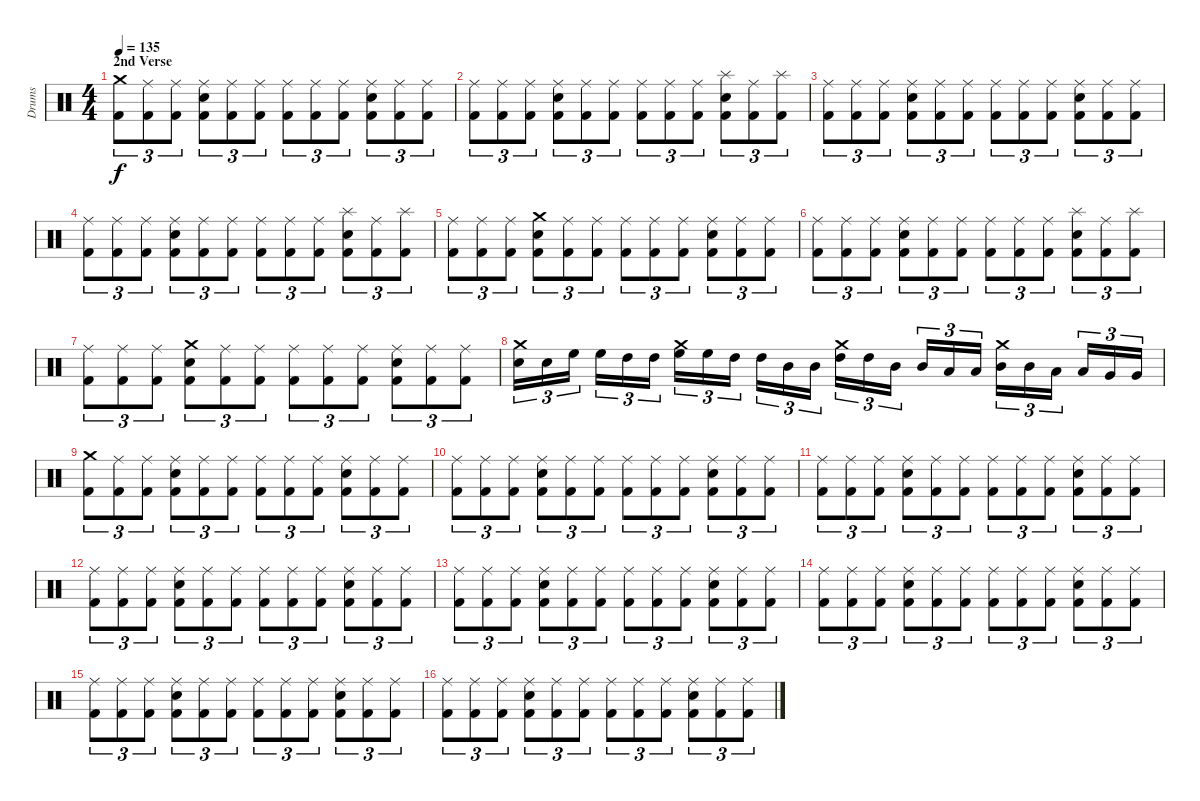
\track ("Drums" "Drums") {instrument percussion}
\staff {score}
\articulation defaults
\ts (4 4)
\section ("" "2nd Verse")
\tempo 135
\clef neutral
\ks c
("Kick (hit) 2" "Crash medium (hit)").8{tu (3 2) dy f} ("Kick (hit) 2" "Ride (middle)").8{tu (3 2)} ("Kick (hit) 2" "Ride (middle)").8{tu (3 2)} ("Kick (hit) 2" "Electric Snare (hit)" "Ride (middle)").8{tu (3 2)} ("Kick (hit) 2" "Ride (middle)").8{tu (3 2)} ("Kick (hit) 2" "Ride (middle)").8{tu (3 2)} ("Kick (hit) 2" "Ride (middle)").8{tu (3 2)} ("Kick (hit) 2" "Ride (middle)").8{tu (3 2)} ("Kick (hit) 2" "Ride (middle)").8{tu (3 2)} ("Kick (hit) 2" "Electric Snare (hit)" "Ride (middle)").8{tu (3 2)} ("Kick (hit) 2" "Ride (middle)").8{tu (3 2)} ("Kick (hit) 2" "Ride (middle)").8{tu (3 2)} |
("Kick (hit) 2" "Ride (middle)").8{tu (3 2)} ("Kick (hit) 2" "Ride (middle)").8{tu (3 2)} ("Kick (hit) 2" "Ride (middle)").8{tu (3 2)} ("Kick (hit) 2" "Electric Snare (hit)" "Ride (middle)").8{tu (3 2)} ("Kick (hit) 2" "Ride (middle)").8{tu (3 2)} ("Kick (hit) 2" "Ride (middle)").8{tu (3 2)} ("Kick (hit) 2" "Ride (middle)").8{tu (3 2)} ("Kick (hit) 2" "Ride (middle)").8{tu (3 2)} ("Kick (hit) 2" "Ride (middle)").8{tu (3 2)} ("Kick (hit) 2" "Electric Snare (hit)" "Splash (hit)").8{tu (3 2)} ("Kick (hit) 2" "Ride (middle)").8{tu (3 2)} ("Kick (hit) 2" "Splash (hit)").8{tu (3 2)} |
("Kick (hit) 2" "Ride (middle)").8{tu (3 2)} ("Kick (hit) 2" "Ride (middle)").8{tu (3 2)} ("Kick (hit) 2" "Ride (middle)").8{tu (3 2)} ("Kick (hit) 2" "Electric Snare (hit)" "Ride (middle)").8{tu (3 2)} ("Kick (hit) 2" "Ride (middle)").8{tu (3 2)} ("Kick (hit) 2" "Ride (middle)").8{tu (3 2)} ("Kick (hit) 2" "Ride (middle)").8{tu (3 2)} ("Kick (hit) 2" "Ride (middle)").8{tu (3 2)} ("Kick (hit) 2" "Ride (middle)").8{tu (3 2)} ("Kick (hit) 2" "Electric Snare (hit)" "Ride (middle)").8{tu (3 2)} ("Kick (hit) 2" "Ride (middle)").8{tu (3 2)} ("Kick (hit) 2" "Ride (middle)").8{tu (3 2)} |
("Kick (hit) 2" "Ride (middle)").8{tu (3 2)} ("Kick (hit) 2" "Ride (middle)").8{tu (3 2)} ("Kick (hit) 2" "Ride (middle)").8{tu (3 2)} ("Kick (hit) 2" "Electric Snare (hit)" "Ride (middle)").8{tu (3 2)} ("Kick (hit) 2" "Ride (middle)").8{tu (3 2)} ("Kick (hit) 2" "Ride (middle)").8{tu (3 2)} ("Kick (hit) 2" "Ride (middle)").8{tu (3 2)} ("Kick (hit) 2" "Ride (middle)").8{tu (3 2)} ("Kick (hit) 2" "Ride (middle)").8{tu (3 2)} ("Kick (hit) 2" "Electric Snare (hit)" "Splash (hit)").8{tu (3 2)} ("Kick (hit) 2" "Ride (middle)").8{tu (3 2)} ("Kick (hit) 2" "Splash (hit)").8{tu (3 2)} |
("Kick (hit) 2" "Ride (middle)").8{tu (3 2)} ("Kick (hit) 2" "Ride (middle)").8{tu (3 2)} ("Kick (hit) 2" "Ride (middle)").8{tu (3 2)} ("Kick (hit) 2" "Electric Snare (hit)" "Crash medium (hit)").8{tu (3 2)} ("Kick (hit) 2" "Ride (middle)").8{tu (3 2)} ("Kick (hit) 2" "Ride (middle)").8{tu (3 2)} ("Kick (hit) 2" "Ride (middle)").8{tu (3 2)} ("Kick (hit) 2" "Ride (middle)").8{tu (3 2)} ("Kick (hit) 2" "Ride (middle)").8{tu (3 2)} ("Kick (hit) 2" "Electric Snare (hit)" "Ride (middle)").8{tu (3 2)} ("Kick (hit) 2" "Ride (middle)").8{tu (3 2)} ("Kick (hit) 2" "Ride (middle)").8{tu (3 2)} |
("Kick (hit) 2" "Ride (middle)").8{tu (3 2)} ("Kick (hit) 2" "Ride (middle)").8{tu (3 2)} ("Kick (hit) 2" "Ride (middle)").8{tu (3 2)} ("Kick (hit) 2" "Electric Snare (hit)" "Ride (middle)").8{tu (3 2)} ("Kick (hit) 2" "Ride (middle)").8{tu (3 2)} ("Kick (hit) 2" "Ride (middle)").8{tu (3 2)} ("Kick (hit) 2" "Ride (middle)").8{tu (3 2)} ("Kick (hit) 2" "Ride (middle)").8{tu (3 2)} ("Kick (hit) 2" "Ride (middle)").8{tu (3 2)} ("Kick (hit) 2" "Electric Snare (hit)" "Splash (hit)").8{tu (3 2)} ("Kick (hit) 2" "Ride (middle)").8{tu (3 2)} ("Kick (hit) 2" "Splash (hit)").8{tu (3 2)} |
("Kick (hit) 2" "Ride (middle)").8{tu (3 2)} ("Kick (hit) 2" "Ride (middle)").8{tu (3 2)} ("Kick (hit) 2" "Ride (middle)").8{tu (3 2)} ("Kick (hit) 2" "Electric Snare (hit)" "Crash medium (hit)").8{tu (3 2)} ("Kick (hit) 2" "Ride (middle)").8{tu (3 2)} ("Kick (hit) 2" "Ride (middle)").8{tu (3 2)} ("Kick (hit) 2" "Ride (middle)").8{tu (3 2)} ("Kick (hit) 2" "Ride (middle)").8{tu (3 2)} ("Kick (hit) 2" "Ride (middle)").8{tu (3 2)} ("Kick (hit) 2" "Electric Snare (hit)" "Ride (middle)").8{tu (3 2)} ("Kick (hit) 2" "Ride (middle)").8{tu (3 2)} ("Kick (hit) 2" "Ride (middle)").8{tu (3 2)} |
("Electric Snare (hit)" "Crash medium (hit)").16{tu (3 2)} "Electric Snare (hit)".16{tu (3 2)} "High Floor Tom (hit)".16{tu (3 2)} "High Floor Tom (hit)".16{tu (3 2)} "High Tom (hit)".16{tu (3 2)} "High Tom (hit)".16{tu (3 2)} ("High Floor Tom (hit)" "Crash medium (hit)").16{tu (3 2)} "High Floor Tom (hit)".16{tu (3 2)} "High Tom (hit)".16{tu (3 2)} "High Tom (hit)".16{tu (3 2)} "Mid Tom (hit)".16{tu (3 2)} "Mid Tom (hit)".16{tu (3 2)} ("High Tom (hit)" "Crash medium (hit)").16{tu (3 2)} "High Tom (hit)".16{tu (3 2)} "Mid Tom (hit)".16{tu (3 2)} "Mid Tom (hit)".16{tu (3 2)} "Low Tom (hit)".16{tu (3 2)} "Low Tom (hit)".16{tu (3 2)} ("Mid Tom (hit)" "Crash medium (hit)").16{tu (3 2)} "Mid Tom (hit)".16{tu (3 2)} "Low Tom (hit)".16{tu (3 2)} "Low Tom (hit)".16{tu (3 2)} "Very Low Tom (hit)".16{tu (3 2)} "Very Low Tom (hit)".16{tu (3 2)} |
("Kick (hit) 2" "Crash medium (hit)").8{tu (3 2)} ("Kick (hit) 2" "Ride (middle)").8{tu (3 2)} ("Kick (hit) 2" "Ride (middle)").8{tu (3 2)} ("Kick (hit) 2" "Electric Snare (hit)" "Ride (middle)").8{tu (3 2)} ("Kick (hit) 2" "Ride (middle)").8{tu (3 2)} ("Kick (hit) 2" "Ride (middle)").8{tu (3 2)} ("Kick (hit) 2" "Ride (middle)").8{tu (3 2)} ("Kick (hit) 2" "Ride (middle)").8{tu (3 2)} ("Kick (hit) 2" "Ride (middle)").8{tu (3 2)} ("Kick (hit) 2" "Electric Snare (hit)" "Ride (middle)").8{tu (3 2)} ("Kick (hit) 2" "Ride (middle)").8{tu (3 2)} ("Kick (hit) 2" "Ride (middle)").8{tu (3 2)} |
("Kick (hit) 2" "Ride (middle)").8{tu (3 2)} ("Kick (hit) 2" "Ride (middle)").8{tu (3 2)} ("Kick (hit) 2" "Ride (middle)").8{tu (3 2)} ("Kick (hit) 2" "Electric Snare (hit)" "Ride (middle)").8{tu (3 2)} ("Kick (hit) 2" "Ride (middle)").8{tu (3 2)} ("Kick (hit) 2" "Ride (middle)").8{tu (3 2)} ("Kick (hit) 2" "Ride (middle)").8{tu (3 2)} ("Kick (hit) 2" "Ride (middle)").8{tu (3 2)} ("Kick (hit) 2" "Ride (middle)").8{tu (3 2)} ("Kick (hit) 2" "Electric Snare (hit)" "Ride (middle)").8{tu (3 2)} ("Kick (hit) 2" "Ride (middle)").8{tu (3 2)} ("Kick (hit) 2" "Ride (middle)").8{tu (3 2)} |
("Kick (hit) 2" "Ride (middle)").8{tu (3 2)} ("Kick (hit) 2" "Ride (middle)").8{tu (3 2)} ("Kick (hit) 2" "Ride (middle)").8{tu (3 2)} ("Kick (hit) 2" "Electric Snare (hit)" "Ride (middle)").8{tu (3 2)} ("Kick (hit) 2" "Ride (middle)").8{tu (3 2)} ("Kick (hit) 2" "Ride (middle)").8{tu (3 2)} ("Kick (hit) 2" "Ride (middle)").8{tu (3 2)} ("Kick (hit) 2" "Ride (middle)").8{tu (3 2)} ("Kick (hit) 2" "Ride (middle)").8{tu (3 2)} ("Kick (hit) 2" "Electric Snare (hit)" "Ride (middle)").8{tu (3 2)} ("Kick (hit) 2" "Ride (middle)").8{tu (3 2)} ("Kick (hit) 2" "Ride (middle)").8{tu (3 2)} |
("Kick (hit) 2" "Ride (middle)").8{tu (3 2)} ("Kick (hit) 2" "Ride (middle)").8{tu (3 2)} ("Kick (hit) 2" "Ride (middle)").8{tu (3 2)} ("Kick (hit) 2" "Electric Snare (hit)" "Ride (middle)").8{tu (3 2)} ("Kick (hit) 2" "Ride (middle)").8{tu (3 2)} ("Kick (hit) 2" "Ride (middle)").8{tu (3 2)} ("Kick (hit) 2" "Ride (middle)").8{tu (3 2)} ("Kick (hit) 2" "Ride (middle)").8{tu (3 2)} ("Kick (hit) 2" "Ride (middle)").8{tu (3 2)} ("Kick (hit) 2" "Electric Snare (hit)" "Ride (middle)").8{tu (3 2)} ("Kick (hit) 2" "Ride (middle)").8{tu (3 2)} ("Kick (hit) 2" "Ride (middle)").8{tu (3 2)} |
("Kick (hit) 2" "Ride (middle)").8{tu (3 2)} ("Kick (hit) 2" "Ride (middle)").8{tu (3 2)} ("Kick (hit) 2" "Ride (middle)").8{tu (3 2)} ("Kick (hit) 2" "Electric Snare (hit)" "Ride (middle)").8{tu (3 2)} ("Kick (hit) 2" "Ride (middle)").8{tu (3 2)} ("Kick (hit) 2" "Ride (middle)").8{tu (3 2)} ("Kick (hit) 2" "Ride (middle)").8{tu (3 2)} ("Kick (hit) 2" "Ride (middle)").8{tu (3 2)} ("Kick (hit) 2" "Ride (middle)").8{tu (3 2)} ("Kick (hit) 2" "Electric Snare (hit)" "Ride (middle)").8{tu (3 2)} ("Kick (hit) 2" "Ride (middle)").8{tu (3 2)} ("Kick (hit) 2" "Ride (middle)").8{tu (3 2)} |
("Kick (hit) 2" "Ride (middle)").8{tu (3 2)} ("Kick (hit) 2" "Ride (middle)").8{tu (3 2)} ("Kick (hit) 2" "Ride (middle)").8{tu (3 2)} ("Kick (hit) 2" "Electric Snare (hit)" "Ride (middle)").8{tu (3 2)} ("Kick (hit) 2" "Ride (middle)").8{tu (3 2)} ("Kick (hit) 2" "Ride (middle)").8{tu (3 2)} ("Kick (hit) 2" "Ride (middle)").8{tu (3 2)} ("Kick (hit) 2" "Ride (middle)").8{tu (3 2)} ("Kick (hit) 2" "Ride (middle)").8{tu (3 2)} ("Kick (hit) 2" "Electric Snare (hit)" "Ride (middle)").8{tu (3 2)} ("Kick (hit) 2" "Ride (middle)").8{tu (3 2)} ("Kick (hit) 2" "Ride (middle)").8{tu (3 2)} |
("Kick (hit) 2" "Ride (middle)").8{tu (3 2)} ("Kick (hit) 2" "Ride (middle)").8{tu (3 2)} ("Kick (hit) 2" "Ride (middle)").8{tu (3 2)} ("Kick (hit) 2" "Electric Snare (hit)" "Ride (middle)").8{tu (3 2)} ("Kick (hit) 2" "Ride (middle)").8{tu (3 2)} ("Kick (hit) 2" "Ride (middle)").8{tu (3 2)} ("Kick (hit) 2" "Ride (middle)").8{tu (3 2)} ("Kick (hit) 2" "Ride (middle)").8{tu (3 2)} ("Kick (hit) 2" "Ride (middle)").8{tu (3 2)} ("Kick (hit) 2" "Electric Snare (hit)" "Ride (middle)").8{tu (3 2)} ("Kick (hit) 2" "Ride (middle)").8{tu (3 2)} ("Kick (hit) 2" "Ride (middle)").8{tu (3 2)} |
("Kick (hit) 2" "Ride (middle)").8{tu (3 2)} ("Kick (hit) 2" "Ride (middle)").8{tu (3 2)} ("Kick (hit) 2" "Ride (middle)").8{tu (3 2)} ("Kick (hit) 2" "Electric Snare (hit)" "Ride (middle)").8{tu (3 2)} ("Kick (hit) 2" "Ride (middle)").8{tu (3 2)} ("Kick (hit) 2" "Ride (middle)").8{tu (3 2)} ("Kick (hit) 2" "Ride (middle)").8{tu (3 2)} ("Kick (hit) 2" "Ride (middle)").8{tu (3 2)} ("Kick (hit) 2" "Ride (middle)").8{tu (3 2)} ("Kick (hit) 2" "Electric Snare (hit)" "Ride (middle)").8{tu (3 2)} ("Kick (hit) 2" "Ride (middle)").8{tu (3 2)} ("Kick (hit) 2" "Ride (middle)").8{tu (3 2)}
